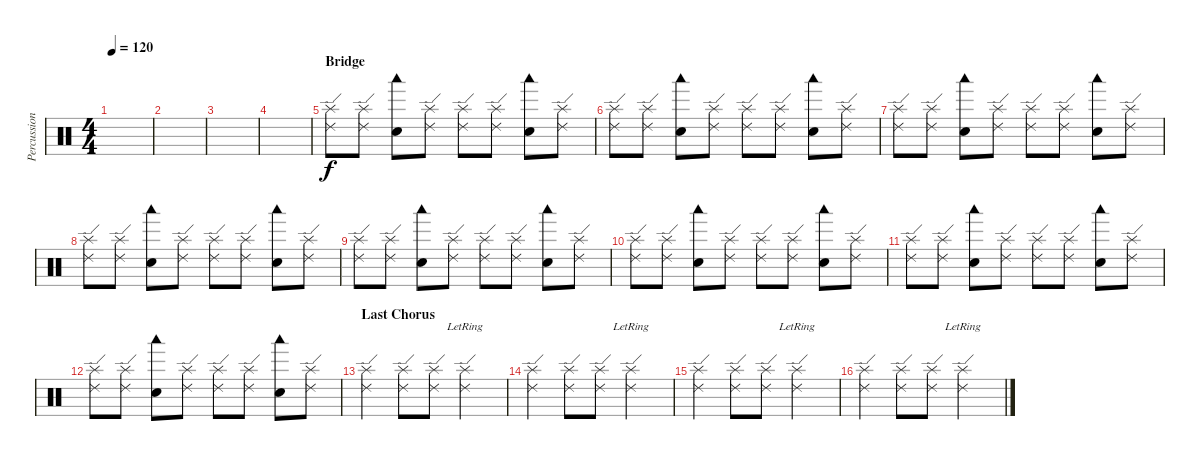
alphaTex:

\track ("Percussion" "Percussion") {instrument percussion}
\staff {score}
\articulation defaults
\ts (4 4)
\tempo 120
\clef neutral
\ks c
|
|
|
|
\section ("" "Bridge")
("Splash (hit)" "Ride (edge) 2").8 ("Splash (hit)" "Ride (edge) 2").8 ("Woodblock low (hit)" "Electric Snare (hit)").8 ("Splash (hit)" "Ride (edge) 2").8 ("Splash (hit)" "Ride (edge) 2").8 ("Splash (hit)" "Ride (edge) 2").8 ("Woodblock low (hit)" "Electric Snare (hit)").8 ("Splash (hit)" "Ride (edge) 2").8 |
("Splash (hit)" "Ride (edge) 2").8 ("Splash (hit)" "Ride (edge) 2").8 ("Woodblock low (hit)" "Electric Snare (hit)").8 ("Splash (hit)" "Ride (edge) 2").8 ("Splash (hit)" "Ride (edge) 2").8 ("Splash (hit)" "Ride (edge) 2").8 ("Woodblock low (hit)" "Electric Snare (hit)").8 ("Splash (hit)" "Ride (edge) 2").8 |
("Splash (hit)" "Ride (edge) 2").8 ("Splash (hit)" "Ride (edge) 2").8 ("Woodblock low (hit)" "Electric Snare (hit)").8 ("Splash (hit)" "Ride (edge) 2").8 ("Splash (hit)" "Ride (edge) 2").8 ("Splash (hit)" "Ride (edge) 2").8 ("Woodblock low (hit)" "Electric Snare (hit)").8 ("Splash (hit)" "Ride (edge) 2").8 |
("Splash (hit)" "Ride (edge) 2").8 ("Splash (hit)" "Ride (edge) 2").8 ("Woodblock low (hit)" "Electric Snare (hit)").8 ("Splash (hit)" "Ride (edge) 2").8 ("Splash (hit)" "Ride (edge) 2").8 ("Splash (hit)" "Ride (edge) 2").8 ("Woodblock low (hit)" "Electric Snare (hit)").8 ("Splash (hit)" "Ride (edge) 2").8 |
("Splash (hit)" "Ride (edge) 2").8 ("Splash (hit)" "Ride (edge) 2").8 ("Woodblock low (hit)" "Electric Snare (hit)").8 ("Splash (hit)" "Ride (edge) 2").8 ("Splash (hit)" "Ride (edge) 2").8 ("Splash (hit)" "Ride (edge) 2").8 ("Woodblock low (hit)" "Electric Snare (hit)").8 ("Splash (hit)" "Ride (edge) 2").8 |
("Splash (hit)" "Ride (edge) 2").8 ("Splash (hit)" "Ride (edge) 2").8 ("Woodblock low (hit)" "Electric Snare (hit)").8 ("Splash (hit)" "Ride (edge) 2").8 ("Splash (hit)" "Ride (edge) 2").8 ("Splash (hit)" "Ride (edge) 2").8 ("Woodblock low (hit)" "Electric Snare (hit)").8 ("Splash (hit)" "Ride (edge) 2").8 |
("Splash (hit)" "Ride (edge) 2").8 ("Splash (hit)" "Ride (edge) 2").8 ("Woodblock low (hit)" "Electric Snare (hit)").8 ("Splash (hit)" "Ride (edge) 2").8 ("Splash (hit)" "Ride (edge) 2").8 ("Splash (hit)" "Ride (edge) 2").8 ("Woodblock low (hit)" "Electric Snare (hit)").8 ("Splash (hit)" "Ride (edge) 2").8 |
("Splash (hit)" "Ride (edge) 2").8 ("Splash (hit)" "Ride (edge) 2").8 ("Woodblock low (hit)" "Electric Snare (hit)").8 ("Splash (hit)" "Ride (edge) 2").8 ("Splash (hit)" "Ride (edge) 2").8 ("Splash (hit)" "Ride (edge) 2").8 ("Woodblock low (hit)" "Electric Snare (hit)").8 ("Splash (hit)" "Ride (edge) 2").8 |
\section ("" "Last Chorus")
("Splash (hit)" "Ride (edge) 2").4 ("Splash (hit)" "Ride (edge) 2").8 ("Splash (hit)" "Ride (edge) 2").8 ("Splash (hit)"{lr} "Ride (edge) 2"{lr}).2 |
("Splash (hit)" "Ride (edge) 2").4 ("Splash (hit)" "Ride (edge) 2").8 ("Splash (hit)" "Ride (edge) 2").8 ("Splash (hit)"{lr} "Ride (edge) 2"{lr}).2 |
("Splash (hit)" "Ride (edge) 2").4 ("Splash (hit)" "Ride (edge) 2").8 ("Splash (hit)" "Ride (edge) 2").8 ("Splash (hit)"{lr} "Ride (edge) 2"{lr}).2 |
("Splash (hit)" "Ride (edge) 2").4 ("Splash (hit)" "Ride (edge) 2").8 ("Splash (hit)" "Ride (edge) 2").8 ("Splash (hit)"{lr} "Ride (edge) 2"{lr}).2
